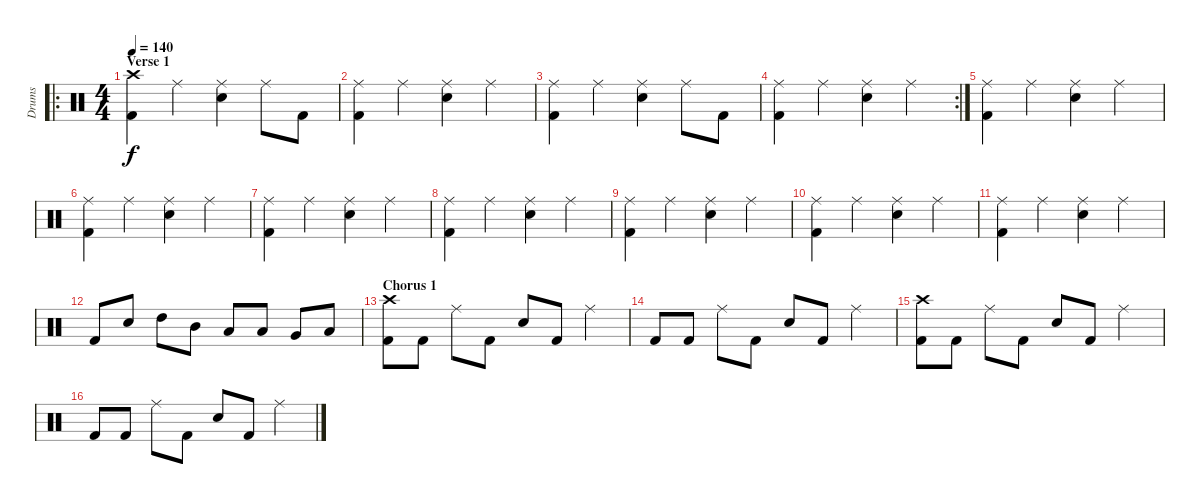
\track ("Drums" "Drums") {instrument percussion}
\staff {score}
\articulation defaults
\ro
\ts (4 4)
\section ("" "Verse 1")
\tempo 140
\clef neutral
\ks c
("Crash high (hit)" "Kick (hit) 2").4{dy f} "Ride (middle)".4 ("Ride (middle)" "Electric Snare (hit)").4 "Ride (middle)".8 "Kick (hit) 2".8 |
("Ride (middle)" "Kick (hit) 2").4 "Ride (middle)".4 ("Ride (middle)" "Electric Snare (hit)").4 "Ride (middle)".4 |
("Ride (middle)" "Kick (hit) 2").4 "Ride (middle)".4 ("Ride (middle)" "Electric Snare (hit)").4 "Ride (middle)".8 "Kick (hit) 2".8 |
\rc 2
("Ride (middle)" "Kick (hit) 2").4 "Ride (middle)".4 ("Ride (middle)" "Electric Snare (hit)").4 "Ride (middle)".4 |
("Ride (middle)" "Kick (hit) 2").4 "Ride (middle)".4 ("Ride (middle)" "Electric Snare (hit)").4 "Ride (middle)".4 |
("Ride (middle)" "Kick (hit) 2").4 "Ride (middle)".4 ("Ride (middle)" "Electric Snare (hit)").4 "Ride (middle)".4 |
("Ride (middle)" "Kick (hit) 2").4 "Ride (middle)".4 ("Ride (middle)" "Electric Snare (hit)").4 "Ride (middle)".4 |
("Ride (middle)" "Kick (hit) 2").4 "Ride (middle)".4 ("Ride (middle)" "Electric Snare (hit)").4 "Ride (middle)".4 |
("Ride (middle)" "Kick (hit) 2").4 "Ride (middle)".4 ("Ride (middle)" "Electric Snare (hit)").4 "Ride (middle)".4 |
("Ride (middle)" "Kick (hit) 2").4 "Ride (middle)".4 ("Ride (middle)" "Electric Snare (hit)").4 "Ride (middle)".4 |
("Ride (middle)" "Kick (hit) 2").4 "Ride (middle)".4 ("Ride (middle)" "Electric Snare (hit)").4 "Ride (middle)".4 |
"Kick (hit) 2".8 "Electric Snare (hit)".8 "High Tom (hit)".8 "Mid Tom (hit)".8 "Low Tom (hit)".8 "Low Tom (hit)".8 "Very Low Tom (hit)".8 "Low Floor Tom (hit)".8 |
\section ("" "Chorus 1")
("Crash high (hit)" "Kick (hit) 2").8 "Kick (hit) 2".8 "Ride (middle)".8 "Kick (hit) 2".8 "Electric Snare (hit)".8 "Kick (hit) 2".8 "Ride (middle)".4 |
"Kick (hit) 2".8 "Kick (hit) 2".8 "Ride (middle)".8 "Kick (hit) 2".8 "Electric Snare (hit)".8 "Kick (hit) 2".8 "Ride (middle)".4 |
("Crash high (hit)" "Kick (hit) 2").8 "Kick (hit) 2".8 "Ride (middle)".8 "Kick (hit) 2".8 "Electric Snare (hit)".8 "Kick (hit) 2".8 "Ride (middle)".4 |
"Kick (hit) 2".8 "Kick (hit) 2".8 "Ride (middle)".8 "Kick (hit) 2".8 "Electric Snare (hit)".8 "Kick (hit) 2".8 "Ride (middle)".4
